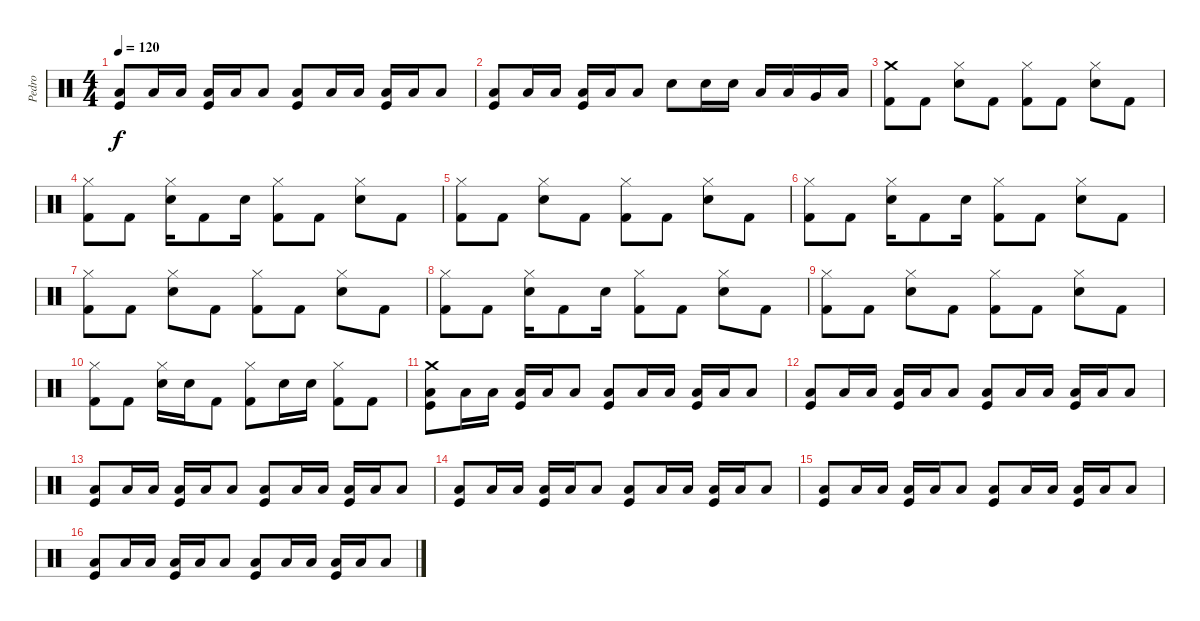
\track ("Pedro" "Pedro") {instrument percussion}
\staff {score}
\articulation defaults
\ts (4 4)
\tempo 120
\clef neutral
\ks c
("Low Floor Tom (hit)" "Kick (hit)").8{dy f} "Low Floor Tom (hit)".16 "Low Floor Tom (hit)".16 ("Low Floor Tom (hit)" "Kick (hit)").16 "Low Floor Tom (hit)".16 "Low Floor Tom (hit)".8 ("Low Floor Tom (hit)" "Kick (hit)").8 "Low Floor Tom (hit)".16 "Low Floor Tom (hit)".16 ("Low Floor Tom (hit)" "Kick (hit)").16 "Low Floor Tom (hit)".16 "Low Floor Tom (hit)".8 |
("Low Floor Tom (hit)" "Kick (hit)").8 "Low Floor Tom (hit)".16 "Low Floor Tom (hit)".16 ("Low Floor Tom (hit)" "Kick (hit)").16 "Low Floor Tom (hit)".16 "Low Floor Tom (hit)".8 "Snare (hit) 2".8 "Snare (hit) 2".16 "Snare (hit) 2".16 "Low Tom (hit)".16 "Low Tom (hit)".16 "Very Low Tom (hit)".16 "Low Floor Tom (hit)".16 |
("Crash medium (hit)" "Kick (hit) 2").8 "Kick (hit) 2".8 ("Hi-Hat (closed)" "Snare (hit) 2").8 "Kick (hit) 2".8 ("Hi-Hat (closed)" "Kick (hit) 2").8 "Kick (hit) 2".8 ("Hi-Hat (closed)" "Snare (hit) 2").8 "Kick (hit) 2".8 |
("Hi-Hat (closed)" "Kick (hit) 2").8 "Kick (hit) 2".8 ("Hi-Hat (closed)" "Snare (hit) 2").16 "Kick (hit) 2".8 "Snare (hit) 2".16 ("Hi-Hat (closed)" "Kick (hit) 2").8 "Kick (hit) 2".8 ("Hi-Hat (closed)" "Snare (hit) 2").8 "Kick (hit) 2".8 |
("Hi-Hat (closed)" "Kick (hit) 2").8 "Kick (hit) 2".8 ("Hi-Hat (closed)" "Snare (hit) 2").8 "Kick (hit) 2".8 ("Hi-Hat (closed)" "Kick (hit) 2").8 "Kick (hit) 2".8 ("Hi-Hat (closed)" "Snare (hit) 2").8 "Kick (hit) 2".8 |
("Hi-Hat (closed)" "Kick (hit) 2").8 "Kick (hit) 2".8 ("Hi-Hat (closed)" "Snare (hit) 2").16 "Kick (hit) 2".8 "Snare (hit) 2".16 ("Hi-Hat (closed)" "Kick (hit) 2").8 "Kick (hit) 2".8 ("Hi-Hat (closed)" "Snare (hit) 2").8 "Kick (hit) 2".8 |
("Hi-Hat (closed)" "Kick (hit) 2").8 "Kick (hit) 2".8 ("Hi-Hat (closed)" "Snare (hit) 2").8 "Kick (hit) 2".8 ("Hi-Hat (closed)" "Kick (hit) 2").8 "Kick (hit) 2".8 ("Hi-Hat (closed)" "Snare (hit) 2").8 "Kick (hit) 2".8 |
("Hi-Hat (closed)" "Kick (hit) 2").8 "Kick (hit) 2".8 ("Hi-Hat (closed)" "Snare (hit) 2").16 "Kick (hit) 2".8 "Snare (hit) 2".16 ("Hi-Hat (closed)" "Kick (hit) 2").8 "Kick (hit) 2".8 ("Hi-Hat (closed)" "Snare (hit) 2").8 "Kick (hit) 2".8 |
("Hi-Hat (closed)" "Kick (hit) 2").8 "Kick (hit) 2".8 ("Hi-Hat (closed)" "Snare (hit) 2").8 "Kick (hit) 2".8 ("Hi-Hat (closed)" "Kick (hit) 2").8 "Kick (hit) 2".8 ("Hi-Hat (closed)" "Snare (hit) 2").8 "Kick (hit) 2".8 |
("Kick (hit) 2" "Hi-Hat (closed)").8 "Kick (hit) 2".8 ("Hi-Hat (closed)" "Snare (hit) 2").16 "Snare (hit) 2".16 "Kick (hit) 2".8 ("Kick (hit) 2" "Hi-Hat (closed)").8 "Snare (hit) 2".16 "Snare (hit) 2".16 ("Kick (hit) 2" "Hi-Hat (closed)").8 "Kick (hit) 2".8 |
("Crash medium (hit)" "Low Floor Tom (hit)" "Kick (hit)").8 "Low Floor Tom (hit)".16 "Low Floor Tom (hit)".16 ("Low Floor Tom (hit)" "Kick (hit)").16 "Low Floor Tom (hit)".16 "Low Floor Tom (hit)".8 ("Low Floor Tom (hit)" "Kick (hit)").8 "Low Floor Tom (hit)".16 "Low Floor Tom (hit)".16 ("Low Floor Tom (hit)" "Kick (hit)").16 "Low Floor Tom (hit)".16 "Low Floor Tom (hit)".8 |
("Low Floor Tom (hit)" "Kick (hit)").8 "Low Floor Tom (hit)".16 "Low Floor Tom (hit)".16 ("Low Floor Tom (hit)" "Kick (hit)").16 "Low Floor Tom (hit)".16 "Low Floor Tom (hit)".8 ("Low Floor Tom (hit)" "Kick (hit)").8 "Low Floor Tom (hit)".16 "Low Floor Tom (hit)".16 ("Low Floor Tom (hit)" "Kick (hit)").16 "Low Floor Tom (hit)".16 "Low Floor Tom (hit)".8 |
("Low Floor Tom (hit)" "Kick (hit)").8 "Low Floor Tom (hit)".16 "Low Floor Tom (hit)".16 ("Low Floor Tom (hit)" "Kick (hit)").16 "Low Floor Tom (hit)".16 "Low Floor Tom (hit)".8 ("Low Floor Tom (hit)" "Kick (hit)").8 "Low Floor Tom (hit)".16 "Low Floor Tom (hit)".16 ("Low Floor Tom (hit)" "Kick (hit)").16 "Low Floor Tom (hit)".16 "Low Floor Tom (hit)".8 |
("Low Floor Tom (hit)" "Kick (hit)").8 "Low Floor Tom (hit)".16 "Low Floor Tom (hit)".16 ("Low Floor Tom (hit)" "Kick (hit)").16 "Low Floor Tom (hit)".16 "Low Floor Tom (hit)".8 ("Low Floor Tom (hit)" "Kick (hit)").8 "Low Floor Tom (hit)".16 "Low Floor Tom (hit)".16 ("Low Floor Tom (hit)" "Kick (hit)").16 "Low Floor Tom (hit)".16 "Low Floor Tom (hit)".8 |
("Low Floor Tom (hit)" "Kick (hit)").8 "Low Floor Tom (hit)".16 "Low Floor Tom (hit)".16 ("Low Floor Tom (hit)" "Kick (hit)").16 "Low Floor Tom (hit)".16 "Low Floor Tom (hit)".8 ("Low Floor Tom (hit)" "Kick (hit)").8 "Low Floor Tom (hit)".16 "Low Floor Tom (hit)".16 ("Low Floor Tom (hit)" "Kick (hit)").16 "Low Floor Tom (hit)".16 "Low Floor Tom (hit)".8 |
("Low Floor Tom (hit)" "Kick (hit)").8 "Low Floor Tom (hit)".16 "Low Floor Tom (hit)".16 ("Low Floor Tom (hit)" "Kick (hit)").16 "Low Floor Tom (hit)".16 "Low Floor Tom (hit)".8 ("Low Floor Tom (hit)" "Kick (hit)").8 "Low Floor Tom (hit)".16 "Low Floor Tom (hit)".16 ("Low Floor Tom (hit)" "Kick (hit)").16 "Low Floor Tom (hit)".16 "Low Floor Tom (hit)".8
